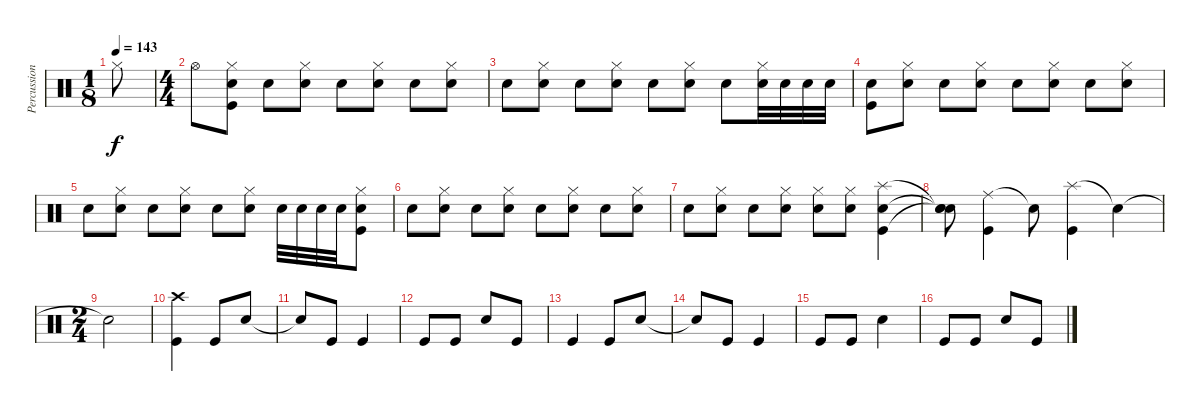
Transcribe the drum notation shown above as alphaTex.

\track ("Percussion" "Percussion") {instrument percussion}
\staff {score}
\articulation defaults
\ts (1 8)
\tempo 143
\clef neutral
\ks c "Hi-Hat (closed)".8{dy f}
|
\ts (4 4)
"Hi-Hat (open)".8 ("Hi-Hat (closed)" "Electric Snare (hit)" "Kick (hit)").8 "Electric Snare (hit)".8{volume 8} ("Hi-Hat (closed)" "Electric Snare (hit)").8 "Electric Snare (hit)".8 ("Hi-Hat (closed)" "Electric Snare (hit)").8{volume 10} "Electric Snare (hit)".8{volume 8} ("Hi-Hat (closed)" "Electric Snare (hit)").8 |
"Electric Snare (hit)".8 ("Hi-Hat (closed)" "Electric Snare (hit)").8 "Electric Snare (hit)".8{volume 10} ("Hi-Hat (closed)" "Electric Snare (hit)").8{volume 8} "Electric Snare (hit)".8 ("Hi-Hat (closed)" "Electric Snare (hit)").8{volume 10} "Electric Snare (hit)".8{volume 8} ("Hi-Hat (closed)" "Electric Snare (hit)").32{volume 7} "Electric Snare (hit)".32 "Electric Snare (hit)".32 "Electric Snare (hit)".32 |
("Electric Snare (hit)" "Kick (hit)").8{volume 10} ("Hi-Hat (closed)" "Electric Snare (hit)").8{volume 8} "Electric Snare (hit)".8 ("Hi-Hat (closed)" "Electric Snare (hit)").8 "Electric Snare (hit)".8{volume 10} ("Hi-Hat (closed)" "Electric Snare (hit)").8{volume 8} "Electric Snare (hit)".8 ("Hi-Hat (closed)" "Electric Snare (hit)").8 |
"Electric Snare (hit)".8 ("Hi-Hat (closed)" "Electric Snare (hit)").8{volume 10} "Electric Snare (hit)".8{volume 8} ("Hi-Hat (closed)" "Electric Snare (hit)").8 "Electric Snare (hit)".8{volume 10} ("Hi-Hat (closed)" "Electric Snare (hit)").8{volume 8} "Electric Snare (hit)".32{volume 7} "Electric Snare (hit)".32 "Electric Snare (hit)".32 "Electric Snare (hit)".32 ("Hi-Hat (closed)" "Electric Snare (hit)" "Kick (hit)").8{volume 10} |
"Electric Snare (hit)".8{volume 8} ("Hi-Hat (closed)" "Electric Snare (hit)").8 "Electric Snare (hit)".8 ("Hi-Hat (closed)" "Electric Snare (hit)").8{volume 10} "Electric Snare (hit)".8{volume 8} ("Hi-Hat (closed)" "Electric Snare (hit)").8 "Electric Snare (hit)".8 ("Hi-Hat (closed)" "Electric Snare (hit)").8 |
"Electric Snare (hit)".8{volume 10} ("Hi-Hat (closed)" "Electric Snare (hit)").8{volume 8} "Electric Snare (hit)".8 ("Hi-Hat (closed)" "Electric Snare (hit)").8{volume 10} ("Hi-Hat (closed)" "Electric Snare (hit)").8{volume 8} ("Hi-Hat (closed)" "Electric Snare (hit)").8{volume 10} ("Splash (hit)" "Electric Snare (hit)" "Kick (hit)").4 |
("Snare (hit)"{t} "Snare (hit)"{t} "Snare (hit)"{t}).8 ("Ride (middle)" "Kick (hit)").4 "Snare (hit)"{t}.8 ("Splash (hit)" "Kick (hit)").4 "Snare (hit)"{t}.4 |
\ts (2 4)
"Snare (hit)"{t}.2 |
("Crash high (hit)" "Kick (hit)").4{volume 16} "Kick (hit)".8 "Electric Snare (hit)".8 |
"Electric Snare (hit)"{t}.8 "Kick (hit)".8 "Kick (hit)".4 |
"Kick (hit)".8 "Kick (hit)".8 "Electric Snare (hit)".8 "Kick (hit)".8 |
"Kick (hit)".4 "Kick (hit)".8 "Electric Snare (hit)".8 |
"Snare (hit)"{t}.8 "Kick (hit)".8 "Kick (hit)".4 |
"Kick (hit)".8 "Kick (hit)".8 "Electric Snare (hit)".4 |
"Kick (hit)".8 "Kick (hit)".8 "Electric Snare (hit)".8 "Kick (hit)".8
